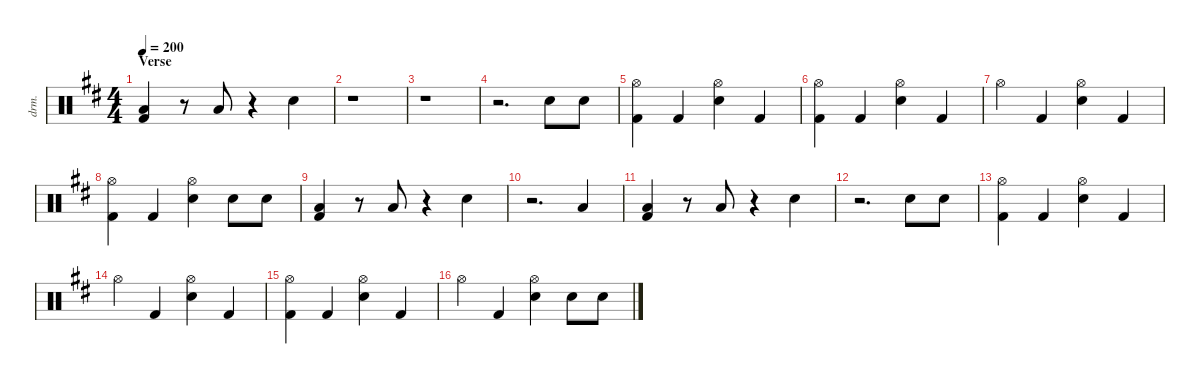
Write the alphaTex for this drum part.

\defaultSystemsLayout 4
\hideDynamics
\bracketExtendMode nobrackets
\otherSystemsTrackNameOrientation horizontal
\track ("Drums" "drm.") {instrument percussion}
\staff {score}
\articulation defaults
\ts (4 4)
\section ("" "Verse")
\tempo 200
\clef neutral
\ks d
("Kick (hit) 2"{acc forcenatural} "Low Tom (hit)"{acc forcenatural}).4{dy ff beam Up} r.8{beam Up} "Low Tom (hit)"{acc forcenatural}.8{beam Up} r.4{beam Up} "Snare (hit) 2"{acc forcenatural}.4{beam Down} |
r.1{beam Down} |
r.1{beam Down} |
r.2{d beam Down} "Snare (hit) 2"{acc forcenatural}.8{beam Down} "Snare (hit) 2"{acc forcenatural}.8{beam Down} |
("Kick (hit) 2"{acc forcenatural} "Hi-Hat (open)"{acc #}).4{beam Down} "Kick (hit) 2"{acc forcenatural}.4{beam Up} ("Snare (hit) 2"{acc forcenatural} "Hi-Hat (open)"{acc #}).4{beam Down} "Kick (hit) 2"{acc forcenatural}.4{beam Up} |
("Kick (hit) 2"{acc forcenatural} "Hi-Hat (open)"{acc #}).4{beam Down} "Kick (hit) 2"{acc forcenatural}.4{beam Up} ("Snare (hit) 2"{acc forcenatural} "Hi-Hat (open)"{acc #}).4{beam Down} "Kick (hit) 2"{acc forcenatural}.4{beam Up} |
"Hi-Hat (open)"{acc #}.4{beam Down} "Kick (hit) 2"{acc forcenatural}.4{beam Up} ("Snare (hit) 2"{acc forcenatural} "Hi-Hat (open)"{acc #}).4{beam Down} "Kick (hit) 2"{acc forcenatural}.4{beam Up} |
("Kick (hit) 2"{acc forcenatural} "Hi-Hat (open)"{acc #}).4{beam Down} "Kick (hit) 2"{acc forcenatural}.4{beam Up} ("Snare (hit) 2"{acc forcenatural} "Hi-Hat (open)"{acc #}).4{beam Down} "Snare (hit) 2"{acc forcenatural}.8{beam Down} "Snare (hit) 2"{acc forcenatural}.8{beam Down} |
("Kick (hit) 2"{acc forcenatural} "Low Tom (hit)"{acc forcenatural}).4{beam Up} r.8{beam Up} "Low Tom (hit)"{acc forcenatural}.8{beam Up} r.4{beam Up} "Snare (hit) 2"{acc forcenatural}.4{beam Down} |
r.2{d beam Down} "Low Tom (hit)"{acc forcenatural}.4{beam Up} |
("Kick (hit) 2"{acc forcenatural} "Low Tom (hit)"{acc forcenatural}).4{beam Up} r.8{beam Up} "Low Tom (hit)"{acc forcenatural}.8{beam Up} r.4{beam Up} "Snare (hit) 2"{acc forcenatural}.4{beam Down} |
r.2{d beam Down} "Snare (hit) 2"{acc forcenatural}.8{beam Down} "Snare (hit) 2"{acc forcenatural}.8{beam Down} |
("Kick (hit) 2"{acc forcenatural} "Hi-Hat (open)"{acc #}).4{beam Down} "Kick (hit) 2"{acc forcenatural}.4{beam Up} ("Snare (hit) 2"{acc forcenatural} "Hi-Hat (open)"{acc #}).4{beam Down} "Kick (hit) 2"{acc forcenatural}.4{beam Up} |
"Hi-Hat (open)"{acc #}.4{beam Down} "Kick (hit) 2"{acc forcenatural}.4{beam Up} ("Snare (hit) 2"{acc forcenatural} "Hi-Hat (open)"{acc #}).4{beam Down} "Kick (hit) 2"{acc forcenatural}.4{beam Up} |
("Hi-Hat (open)"{acc #} "Kick (hit) 2"{acc forcenatural}).4 "Kick (hit) 2"{acc forcenatural}.4{beam Up} ("Snare (hit) 2"{acc forcenatural} "Hi-Hat (open)"{acc #}).4{beam Down} "Kick (hit) 2"{acc forcenatural}.4{beam Up} |
"Hi-Hat (open)"{acc #}.4{beam Down} "Kick (hit) 2"{acc forcenatural}.4{beam Up} ("Snare (hit) 2"{acc forcenatural} "Hi-Hat (open)"{acc #}).4{beam Down} "Snare (hit) 2"{acc forcenatural}.8{beam Down} "Snare (hit) 2"{acc forcenatural}.8{beam Down}
